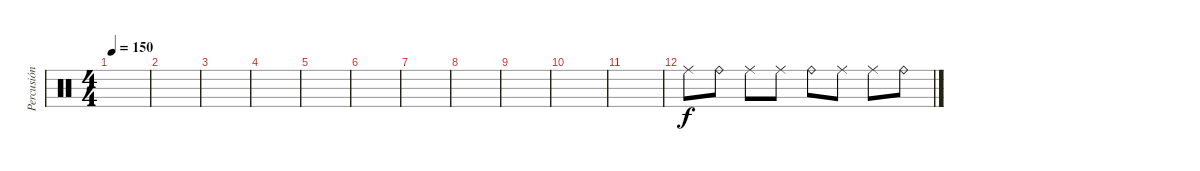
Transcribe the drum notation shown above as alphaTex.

\track ("Percusión" "Percusión") {instrument percussion}
\staff {score}
\articulation defaults
\ts (4 4)
\tempo 150
\clef neutral
\ks c
|
|
|
|
|
|
|
|
|
|
|
"Ride (middle)".8 "Ride (bell)".8 "Ride (middle)".8 "Ride (middle)".8 "Ride (bell)".8 "Ride (middle)".8 "Ride (middle)".8 "Ride (bell)".8
